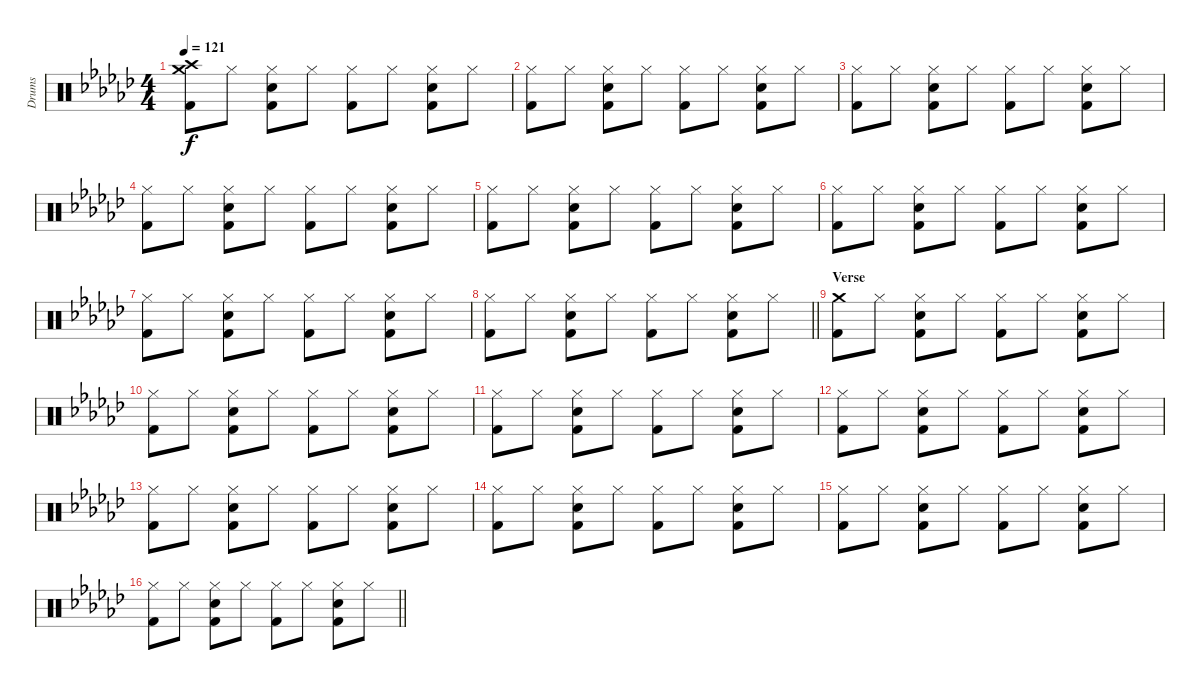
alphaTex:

\track ("Drums" "Drums") {instrument percussion}
\staff {score}
\articulation defaults
\ts (4 4)
\tempo 121
\clef neutral
\ks ebminor
("Crash high (hit)" "Crash medium (hit)" "Kick (hit) 2").8{dy f} "Hi-Hat (closed)".8 ("Hi-Hat (closed)" "Snare (hit) 2" "Kick (hit) 2").8 "Hi-Hat (closed)".8 ("Hi-Hat (closed)" "Kick (hit) 2").8 "Hi-Hat (closed)".8 ("Hi-Hat (closed)" "Snare (hit) 2" "Kick (hit) 2").8 "Hi-Hat (closed)".8 |
("Hi-Hat (closed)" "Kick (hit) 2").8 "Hi-Hat (closed)".8 ("Hi-Hat (closed)" "Snare (hit) 2" "Kick (hit) 2").8 "Hi-Hat (closed)".8 ("Hi-Hat (closed)" "Kick (hit) 2").8 "Hi-Hat (closed)".8 ("Hi-Hat (closed)" "Snare (hit) 2" "Kick (hit) 2").8 "Hi-Hat (closed)".8 |
("Hi-Hat (closed)" "Kick (hit) 2").8 "Hi-Hat (closed)".8 ("Hi-Hat (closed)" "Snare (hit) 2" "Kick (hit) 2").8 "Hi-Hat (closed)".8 ("Hi-Hat (closed)" "Kick (hit) 2").8 "Hi-Hat (closed)".8 ("Hi-Hat (closed)" "Snare (hit) 2" "Kick (hit) 2").8 "Hi-Hat (closed)".8 |
("Hi-Hat (closed)" "Kick (hit) 2").8 "Hi-Hat (closed)".8 ("Hi-Hat (closed)" "Snare (hit) 2" "Kick (hit) 2").8 "Hi-Hat (closed)".8 ("Hi-Hat (closed)" "Kick (hit) 2").8 "Hi-Hat (closed)".8 ("Hi-Hat (closed)" "Snare (hit) 2" "Kick (hit) 2").8 "Hi-Hat (closed)".8 |
("Hi-Hat (closed)" "Kick (hit) 2").8 "Hi-Hat (closed)".8 ("Hi-Hat (closed)" "Snare (hit) 2" "Kick (hit) 2").8 "Hi-Hat (closed)".8 ("Hi-Hat (closed)" "Kick (hit) 2").8 "Hi-Hat (closed)".8 ("Hi-Hat (closed)" "Snare (hit) 2" "Kick (hit) 2").8 "Hi-Hat (closed)".8 |
("Hi-Hat (closed)" "Kick (hit) 2").8 "Hi-Hat (closed)".8 ("Hi-Hat (closed)" "Snare (hit) 2" "Kick (hit) 2").8 "Hi-Hat (closed)".8 ("Hi-Hat (closed)" "Kick (hit) 2").8 "Hi-Hat (closed)".8 ("Hi-Hat (closed)" "Snare (hit) 2" "Kick (hit) 2").8 "Hi-Hat (closed)".8 |
("Hi-Hat (closed)" "Kick (hit) 2").8 "Hi-Hat (closed)".8 ("Hi-Hat (closed)" "Snare (hit) 2" "Kick (hit) 2").8 "Hi-Hat (closed)".8 ("Hi-Hat (closed)" "Kick (hit) 2").8 "Hi-Hat (closed)".8 ("Hi-Hat (closed)" "Snare (hit) 2" "Kick (hit) 2").8 "Hi-Hat (closed)".8 |
\barLineRight lightlight
("Hi-Hat (closed)" "Kick (hit) 2").8 "Hi-Hat (closed)".8 ("Hi-Hat (closed)" "Snare (hit) 2" "Kick (hit) 2").8 "Hi-Hat (closed)".8 ("Hi-Hat (closed)" "Kick (hit) 2").8 "Hi-Hat (closed)".8 ("Hi-Hat (closed)" "Snare (hit) 2" "Kick (hit) 2").8 "Hi-Hat (closed)".8 |
\section ("" "Verse")
("Crash medium (hit)" "Kick (hit) 2").8 "Hi-Hat (closed)".8 ("Hi-Hat (closed)" "Snare (hit) 2" "Kick (hit) 2").8 "Hi-Hat (closed)".8 ("Hi-Hat (closed)" "Kick (hit) 2").8 "Hi-Hat (closed)".8 ("Hi-Hat (closed)" "Snare (hit) 2" "Kick (hit) 2").8 "Hi-Hat (closed)".8 |
("Hi-Hat (closed)" "Kick (hit) 2").8 "Hi-Hat (closed)".8 ("Hi-Hat (closed)" "Snare (hit) 2" "Kick (hit) 2").8 "Hi-Hat (closed)".8 ("Hi-Hat (closed)" "Kick (hit) 2").8 "Hi-Hat (closed)".8 ("Hi-Hat (closed)" "Snare (hit) 2" "Kick (hit) 2").8 "Hi-Hat (closed)".8 |
("Hi-Hat (closed)" "Kick (hit) 2").8 "Hi-Hat (closed)".8 ("Hi-Hat (closed)" "Snare (hit) 2" "Kick (hit) 2").8 "Hi-Hat (closed)".8 ("Hi-Hat (closed)" "Kick (hit) 2").8 "Hi-Hat (closed)".8 ("Hi-Hat (closed)" "Snare (hit) 2" "Kick (hit) 2").8 "Hi-Hat (closed)".8 |
("Hi-Hat (closed)" "Kick (hit) 2").8 "Hi-Hat (closed)".8 ("Hi-Hat (closed)" "Snare (hit) 2" "Kick (hit) 2").8 "Hi-Hat (closed)".8 ("Hi-Hat (closed)" "Kick (hit) 2").8 "Hi-Hat (closed)".8 ("Hi-Hat (closed)" "Snare (hit) 2" "Kick (hit) 2").8 "Hi-Hat (closed)".8 |
("Hi-Hat (closed)" "Kick (hit) 2").8 "Hi-Hat (closed)".8 ("Hi-Hat (closed)" "Snare (hit) 2" "Kick (hit) 2").8 "Hi-Hat (closed)".8 ("Hi-Hat (closed)" "Kick (hit) 2").8 "Hi-Hat (closed)".8 ("Hi-Hat (closed)" "Snare (hit) 2" "Kick (hit) 2").8 "Hi-Hat (closed)".8 |
("Hi-Hat (closed)" "Kick (hit) 2").8 "Hi-Hat (closed)".8 ("Hi-Hat (closed)" "Snare (hit) 2" "Kick (hit) 2").8 "Hi-Hat (closed)".8 ("Hi-Hat (closed)" "Kick (hit) 2").8 "Hi-Hat (closed)".8 ("Hi-Hat (closed)" "Snare (hit) 2" "Kick (hit) 2").8 "Hi-Hat (closed)".8 |
("Hi-Hat (closed)" "Kick (hit) 2").8 "Hi-Hat (closed)".8 ("Hi-Hat (closed)" "Snare (hit) 2" "Kick (hit) 2").8 "Hi-Hat (closed)".8 ("Hi-Hat (closed)" "Kick (hit) 2").8 "Hi-Hat (closed)".8 ("Hi-Hat (closed)" "Snare (hit) 2" "Kick (hit) 2").8 "Hi-Hat (closed)".8 |
\barLineRight lightlight
("Hi-Hat (closed)" "Kick (hit) 2").8 "Hi-Hat (closed)".8 ("Hi-Hat (closed)" "Snare (hit) 2" "Kick (hit) 2").8 "Hi-Hat (closed)".8 ("Hi-Hat (closed)" "Kick (hit) 2").8 "Hi-Hat (closed)".8 ("Hi-Hat (closed)" "Snare (hit) 2" "Kick (hit) 2").8 "Hi-Hat (closed)".8
